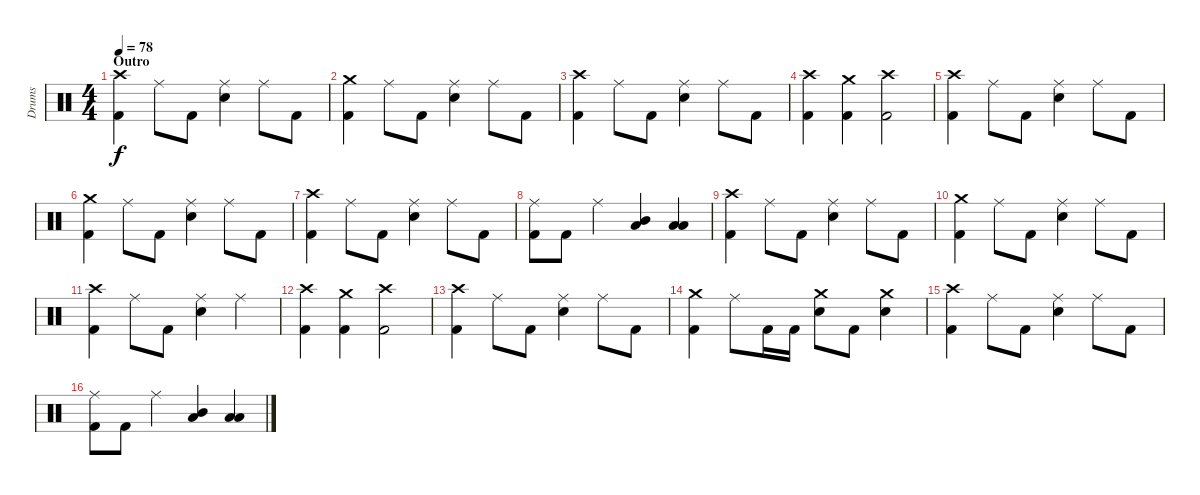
\track ("Drums" "Drums") {instrument percussion}
\staff {score}
\articulation defaults
\ts (4 4)
\section ("" "Outro")
\tempo 78
\clef neutral
\ks c
("Crash high (hit)" "Kick (hit) 2").4{dy f} "Ride (middle)".8 "Kick (hit) 2".8 ("Ride (middle)" "Electric Snare (hit)").4 "Ride (middle)".8 "Kick (hit) 2".8 |
("Crash medium (hit)" "Kick (hit) 2").4 "Ride (middle)".8 "Kick (hit) 2".8 ("Ride (middle)" "Electric Snare (hit)").4 "Ride (middle)".8 "Kick (hit) 2".8 |
("Crash high (hit)" "Kick (hit) 2").4 "Ride (middle)".8 "Kick (hit) 2".8 ("Ride (middle)" "Electric Snare (hit)").4 "Ride (middle)".8 "Kick (hit) 2".8 |
("Crash high (hit)" "Kick (hit) 2").4 ("Crash medium (hit)" "Kick (hit) 2").4 ("Crash high (hit)" "Kick (hit) 2").2 |
("Crash high (hit)" "Kick (hit) 2").4 "Ride (middle)".8 "Kick (hit) 2".8 ("Ride (middle)" "Electric Snare (hit)").4 "Ride (middle)".8 "Kick (hit) 2".8 |
("Crash medium (hit)" "Kick (hit) 2").4 "Ride (middle)".8 "Kick (hit) 2".8 ("Ride (middle)" "Electric Snare (hit)").4 "Ride (middle)".8 "Kick (hit) 2".8 |
("Crash high (hit)" "Kick (hit) 2").4 "Ride (middle)".8 "Kick (hit) 2".8 ("Ride (middle)" "Electric Snare (hit)").4 "Ride (middle)".8 "Kick (hit) 2".8 |
("Ride (middle)" "Kick (hit) 2").8 "Kick (hit) 2".8 "Ride (middle)".4 ("Mid Tom (hit)" "Low Tom (hit)").4 ("Low Tom (hit)" "Low Floor Tom (hit)").4 |
("Crash high (hit)" "Kick (hit) 2").4 "Ride (middle)".8 "Kick (hit) 2".8 ("Ride (middle)" "Electric Snare (hit)").4 "Ride (middle)".8 "Kick (hit) 2".8 |
("Crash medium (hit)" "Kick (hit) 2").4 "Ride (middle)".8 "Kick (hit) 2".8 ("Ride (middle)" "Electric Snare (hit)").4 "Ride (middle)".8 "Kick (hit) 2".8 |
("Crash high (hit)" "Kick (hit) 2").4 "Ride (middle)".8 "Kick (hit) 2".8 ("Ride (middle)" "Electric Snare (hit)").4 "Ride (middle)".4 |
("Crash high (hit)" "Kick (hit) 2").4 ("Crash medium (hit)" "Kick (hit) 2").4 ("Crash high (hit)" "Kick (hit) 2").2 |
("Crash high (hit)" "Kick (hit) 2").4 "Ride (middle)".8 "Kick (hit) 2".8 ("Ride (middle)" "Electric Snare (hit)").4 "Ride (middle)".8 "Kick (hit) 2".8 |
("Crash medium (hit)" "Kick (hit) 2").4 "Ride (middle)".8 "Kick (hit) 2".16 "Kick (hit) 2".16 ("Crash medium (hit)" "Electric Snare (hit)").8 "Kick (hit) 2".8 ("Crash medium (hit)" "Electric Snare (hit)").4 |
("Crash high (hit)" "Kick (hit) 2").4 "Ride (middle)".8 "Kick (hit) 2".8 ("Ride (middle)" "Electric Snare (hit)").4 "Ride (middle)".8 "Kick (hit) 2".8 |
("Ride (middle)" "Kick (hit) 2").8 "Kick (hit) 2".8 "Ride (middle)".4 ("Mid Tom (hit)" "Low Tom (hit)").4 ("Low Tom (hit)" "Low Floor Tom (hit)").4
